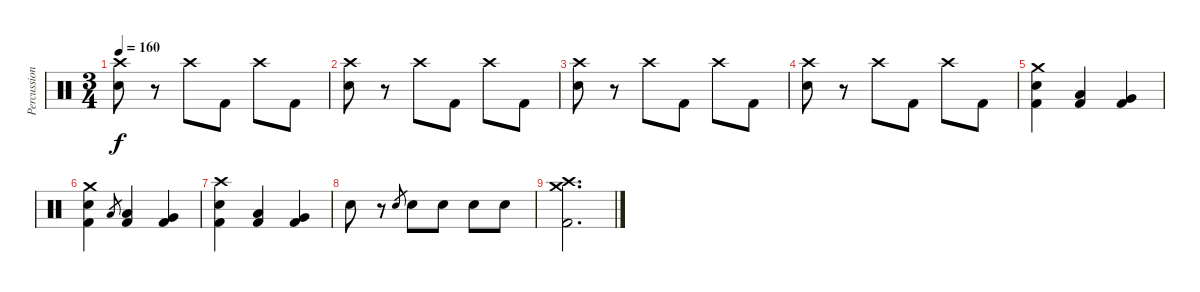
\track ("Percussion" "Percussion") {instrument percussion}
\staff {score}
\articulation defaults
\ts (3 4)
\tempo 160
\clef neutral
\ks c
("Crash high (hit)" "Snare (hit) 2").8{dy f} r.8 "Crash high (hit)".8 "Kick (hit) 2".8 "Crash high (hit)".8 "Kick (hit) 2".8 |
("Crash high (hit)" "Snare (hit) 2").8 r.8 "Crash high (hit)".8 "Kick (hit) 2".8 "Crash high (hit)".8 "Kick (hit) 2".8 |
("Crash high (hit)" "Snare (hit) 2").8 r.8 "Crash high (hit)".8 "Kick (hit) 2".8 "Crash high (hit)".8 "Kick (hit) 2".8 |
("Crash high (hit)" "Snare (hit) 2").8 r.8 "Crash high (hit)".8 "Kick (hit) 2".8 "Crash high (hit)".8 "Kick (hit) 2".8 |
("Crash medium (hit)" "Snare (hit) 2" "Kick (hit) 2").4 ("Low Tom (hit)" "Kick (hit) 2").4 ("Very Low Tom (hit)" "Kick (hit) 2").4 |
("Crash medium (hit)" "Snare (hit) 2" "Kick (hit) 2").4 "Low Tom (hit)".8{gr} ("Low Tom (hit)" "Kick (hit) 2").4 ("Very Low Tom (hit)" "Kick (hit) 2").4 |
("Crash high (hit)" "Snare (hit) 2" "Kick (hit) 2").4 ("Low Tom (hit)" "Kick (hit) 2").4 ("Very Low Tom (hit)" "Kick (hit) 2").4 |
"Snare (hit) 2".8 r.8 "Snare (hit) 2".8{gr} "Snare (hit) 2".8 "Snare (hit) 2".8 "Snare (hit) 2".8 "Snare (hit) 2".8 |
("Crash medium (hit)" "Crash high (hit)" "Kick (hit) 2").2{d}
